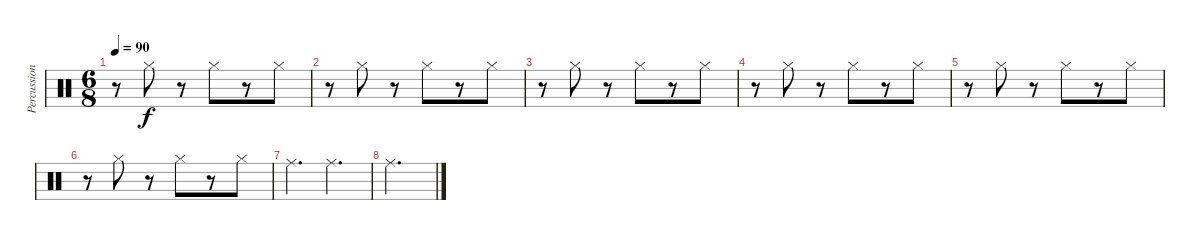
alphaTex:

\track ("Percussion" "Percussion") {instrument percussion}
\staff {score}
\articulation defaults
\ts (6 8)
\tempo 90
\clef neutral
\ks c
r.8{dy f} "Hi-Hat (closed)".8 r.8 "Hi-Hat (closed)".8 r.8 "Hi-Hat (closed)".8 |
r.8 "Hi-Hat (closed)".8 r.8 "Hi-Hat (closed)".8 r.8 "Hi-Hat (closed)".8 |
r.8 "Hi-Hat (closed)".8 r.8 "Hi-Hat (closed)".8 r.8 "Hi-Hat (closed)".8 |
r.8 "Hi-Hat (closed)".8 r.8 "Hi-Hat (closed)".8 r.8 "Hi-Hat (closed)".8 |
r.8 "Hi-Hat (closed)".8 r.8 "Hi-Hat (closed)".8 r.8 "Hi-Hat (closed)".8 |
r.8 "Hi-Hat (closed)".8 r.8 "Hi-Hat (closed)".8 r.8 "Hi-Hat (closed)".8 |
"Ride (middle)".4{d} "Ride (middle)".4{d} |
"Ride (middle)".2{d}
